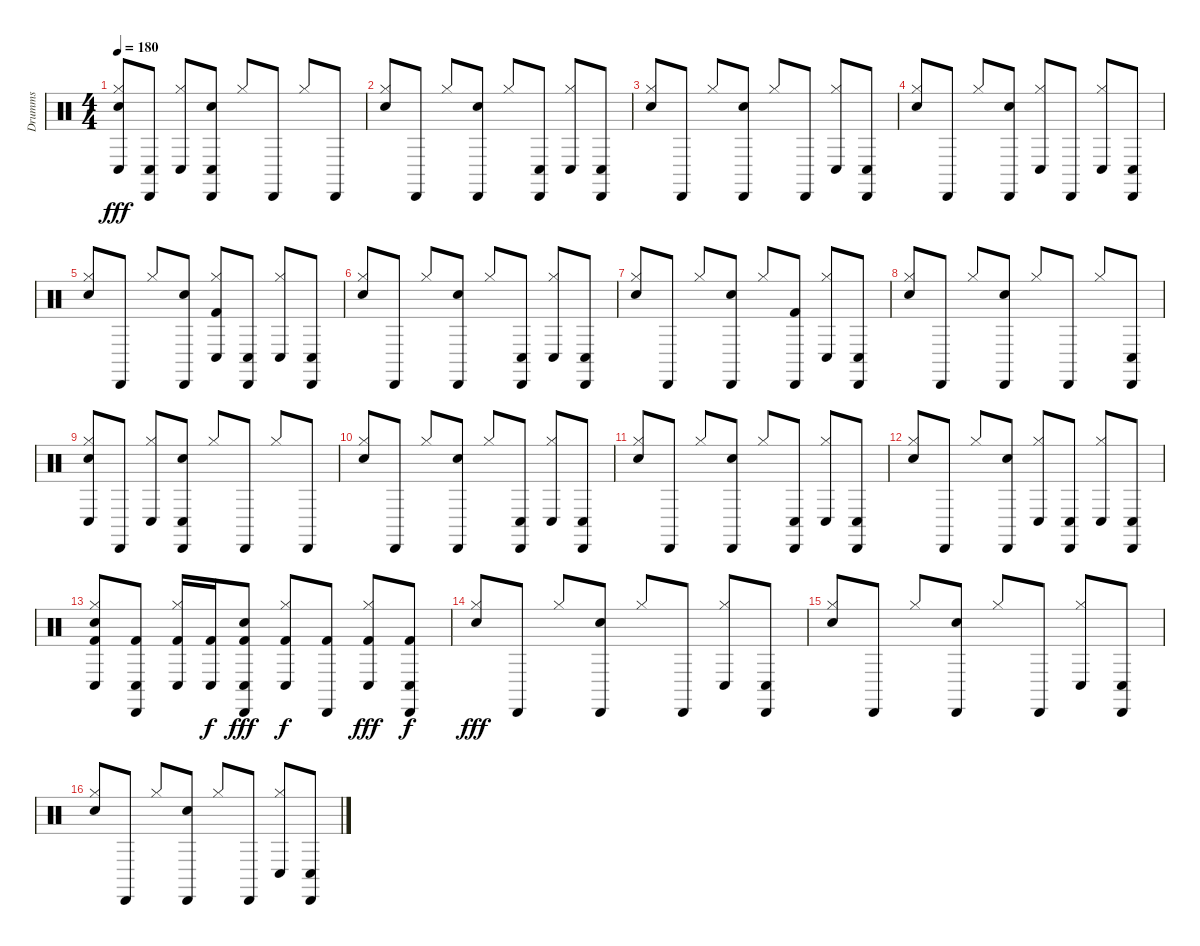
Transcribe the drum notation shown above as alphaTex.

\track ("Drumms" "Drumms") {instrument percussion}
\staff {score}
\articulation defaults
\ts (4 4)
\tempo 180
\clef neutral
\ks c
("Hi-Hat (closed)" "Metronome (bell)" "Conga low (hit)").8{dy fff} ("Cabasa (hit)" "Conga low (hit)").8 ("Hi-Hat (closed)" "Conga low (hit)").8 ("Cabasa (hit)" "Metronome (bell)" "Conga low (hit)").8 "Hi-Hat (closed)".8 "Cabasa (hit)".8 "Hi-Hat (closed)".8 "Cabasa (hit)".8 |
("Hi-Hat (closed)" "Metronome (bell)").8 "Cabasa (hit)".8 "Hi-Hat (closed)".8 ("Cabasa (hit)" "Metronome (bell)").8 "Hi-Hat (closed)".8 ("Cabasa (hit)" "Conga low (hit)").8 ("Hi-Hat (closed)" "Conga low (hit)").8 ("Cabasa (hit)" "Conga low (hit)").8 |
("Hi-Hat (closed)" "Metronome (bell)").8 "Cabasa (hit)".8 "Hi-Hat (closed)".8 ("Cabasa (hit)" "Metronome (bell)").8 "Hi-Hat (closed)".8 "Cabasa (hit)".8 ("Hi-Hat (closed)" "Conga low (hit)").8 ("Cabasa (hit)" "Conga low (hit)").8 |
("Hi-Hat (closed)" "Metronome (bell)").8 "Cabasa (hit)".8 "Hi-Hat (closed)".8 ("Cabasa (hit)" "Metronome (bell)").8 ("Hi-Hat (closed)" "Conga low (hit)").8 "Cabasa (hit)".8 ("Hi-Hat (closed)" "Conga low (hit)").8 ("Cabasa (hit)" "Conga low (hit)").8 |
("Hi-Hat (closed)" "Metronome (bell)").8 "Cabasa (hit)".8 "Hi-Hat (closed)".8 ("Cabasa (hit)" "Metronome (bell)").8 ("Hi-Hat (closed)" "Conga low (hit)" "Kick (hit) 2").8 ("Cabasa (hit)" "Conga low (hit)").8 ("Hi-Hat (closed)" "Conga low (hit)").8 ("Cabasa (hit)" "Conga low (hit)").8 |
("Hi-Hat (closed)" "Metronome (bell)").8 "Cabasa (hit)".8 "Hi-Hat (closed)".8 ("Cabasa (hit)" "Metronome (bell)").8 "Hi-Hat (closed)".8 ("Cabasa (hit)" "Conga low (hit)").8 ("Hi-Hat (closed)" "Conga low (hit)").8 ("Cabasa (hit)" "Conga low (hit)").8 |
("Hi-Hat (closed)" "Metronome (bell)").8 "Cabasa (hit)".8 "Hi-Hat (closed)".8 ("Cabasa (hit)" "Metronome (bell)").8 "Hi-Hat (closed)".8 ("Cabasa (hit)" "Kick (hit) 2").8 ("Hi-Hat (closed)" "Conga low (hit)").8 ("Cabasa (hit)" "Conga low (hit)").8 |
("Hi-Hat (closed)" "Metronome (bell)").8 "Cabasa (hit)".8 "Hi-Hat (closed)".8 ("Cabasa (hit)" "Metronome (bell)").8 "Hi-Hat (closed)".8 "Cabasa (hit)".8 "Hi-Hat (closed)".8 ("Cabasa (hit)" "Conga low (hit)").8 |
("Hi-Hat (closed)" "Metronome (bell)" "Conga low (hit)").8 "Cabasa (hit)".8 ("Hi-Hat (closed)" "Conga low (hit)").8 ("Cabasa (hit)" "Metronome (bell)" "Conga low (hit)").8 "Hi-Hat (closed)".8 "Cabasa (hit)".8 "Hi-Hat (closed)".8 "Cabasa (hit)".8 |
("Hi-Hat (closed)" "Metronome (bell)").8 "Cabasa (hit)".8 "Hi-Hat (closed)".8 ("Cabasa (hit)" "Metronome (bell)").8 "Hi-Hat (closed)".8 ("Cabasa (hit)" "Conga low (hit)").8 ("Hi-Hat (closed)" "Conga low (hit)").8 ("Cabasa (hit)" "Conga low (hit)").8 |
("Hi-Hat (closed)" "Metronome (bell)").8 "Cabasa (hit)".8 "Hi-Hat (closed)".8 ("Cabasa (hit)" "Metronome (bell)").8 "Hi-Hat (closed)".8 ("Cabasa (hit)" "Conga low (hit)").8 ("Hi-Hat (closed)" "Conga low (hit)").8 ("Cabasa (hit)" "Conga low (hit)").8 |
("Hi-Hat (closed)" "Metronome (bell)").8 "Cabasa (hit)".8 "Hi-Hat (closed)".8 ("Cabasa (hit)" "Metronome (bell)").8 ("Hi-Hat (closed)" "Conga low (hit)").8 ("Cabasa (hit)" "Conga low (hit)").8 ("Hi-Hat (closed)" "Conga low (hit)").8 ("Cabasa (hit)" "Conga low (hit)").8 |
("Hi-Hat (closed)" "Metronome (bell)" "Conga low (hit)" "Kick (hit) 2").8 ("Cabasa (hit)" "Conga low (hit)" "Kick (hit) 2").8 ("Hi-Hat (closed)" "Conga low (hit)" "Kick (hit) 2").16 ("Conga low (hit)" "Kick (hit) 2").16{dy f} ("Cabasa (hit)" "Metronome (bell)" "Conga low (hit)" "Kick (hit) 2").8{dy fff} ("Hi-Hat (closed)" "Conga low (hit)" "Kick (hit) 2").8{dy f} ("Cabasa (hit)" "Kick (hit) 2").8 ("Hi-Hat (closed)" "Conga low (hit)" "Kick (hit) 2").8{dy fff} ("Cabasa (hit)" "Conga low (hit)" "Kick (hit) 2").8{dy f} |
("Hi-Hat (closed)" "Metronome (bell)").8{dy fff} "Cabasa (hit)".8 "Hi-Hat (closed)".8 ("Cabasa (hit)" "Metronome (bell)").8 "Hi-Hat (closed)".8 "Cabasa (hit)".8 ("Hi-Hat (closed)" "Conga low (hit)").8 ("Cabasa (hit)" "Conga low (hit)").8 |
("Hi-Hat (closed)" "Metronome (bell)").8 "Cabasa (hit)".8 "Hi-Hat (closed)".8 ("Cabasa (hit)" "Metronome (bell)").8 "Hi-Hat (closed)".8 "Cabasa (hit)".8 ("Hi-Hat (closed)" "Conga low (hit)").8 ("Cabasa (hit)" "Conga low (hit)").8 |
("Hi-Hat (closed)" "Metronome (bell)").8 "Cabasa (hit)".8 "Hi-Hat (closed)".8 ("Cabasa (hit)" "Metronome (bell)").8 "Hi-Hat (closed)".8 "Cabasa (hit)".8 ("Hi-Hat (closed)" "Conga low (hit)").8 ("Cabasa (hit)" "Conga low (hit)").8
